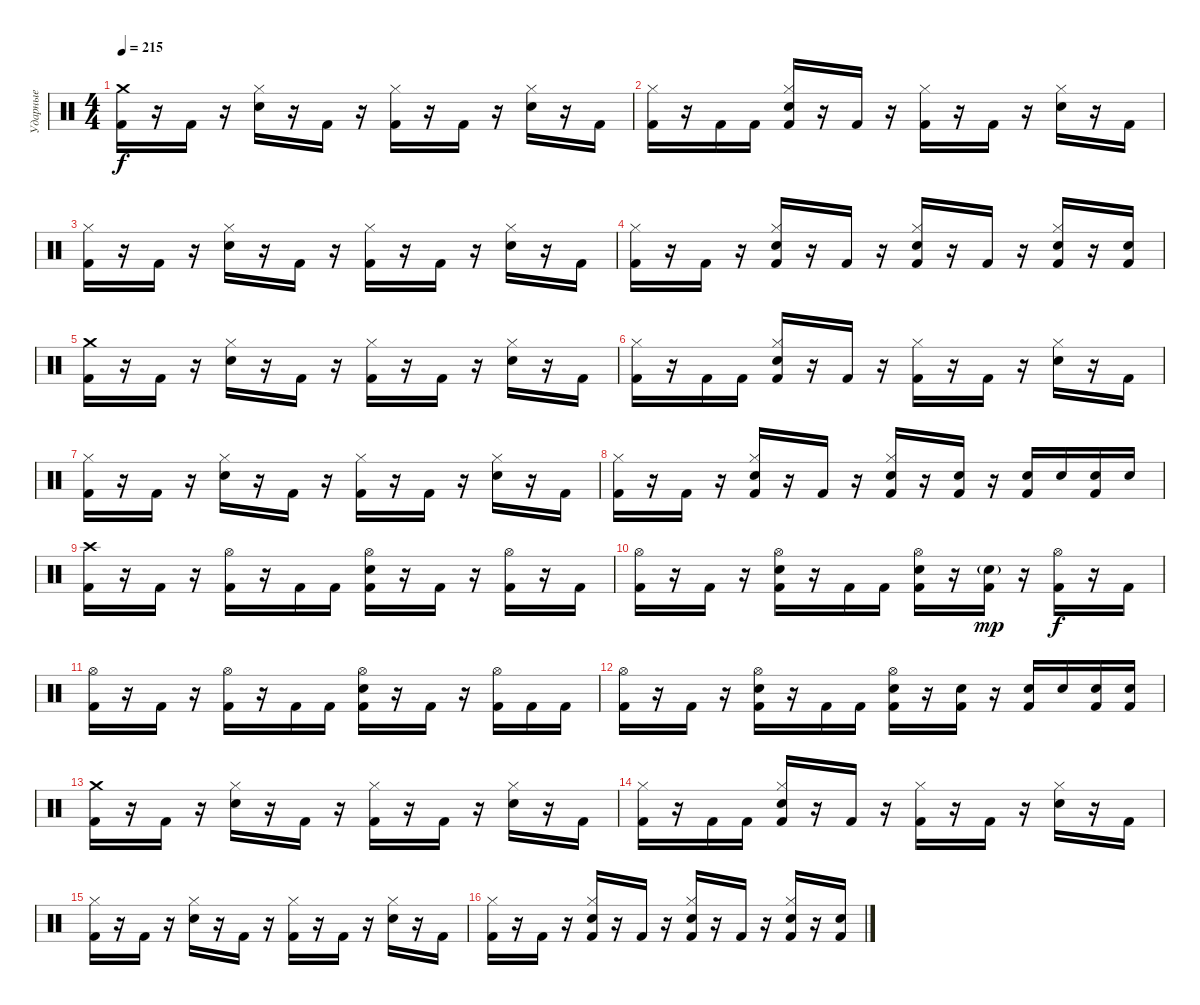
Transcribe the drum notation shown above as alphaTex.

\track ("Ударные" "Ударные") {instrument percussion}
\staff {score}
\articulation defaults
\ts (4 4)
\tempo 215
\clef neutral
\ks c
("Crash medium (hit)" "Kick (hit) 2").16{dy f} r.16 "Kick (hit) 2".16 r.16 ("Hi-Hat (closed)" "Snare (hit) 2").16 r.16 "Kick (hit) 2".16 r.16 ("Hi-Hat (closed)" "Kick (hit) 2").16 r.16 "Kick (hit) 2".16 r.16 ("Hi-Hat (closed)" "Snare (hit) 2").16 r.16 "Kick (hit) 2".16 |
("Hi-Hat (closed)" "Kick (hit) 2").16 r.16 "Kick (hit) 2".16 "Kick (hit) 2".16 ("Hi-Hat (closed)" "Snare (hit) 2" "Kick (hit) 2").16 r.16 "Kick (hit) 2".16 r.16 ("Hi-Hat (closed)" "Kick (hit) 2").16 r.16 "Kick (hit) 2".16 r.16 ("Hi-Hat (closed)" "Snare (hit) 2").16 r.16 "Kick (hit) 2".16 |
("Hi-Hat (closed)" "Kick (hit) 2").16 r.16 "Kick (hit) 2".16 r.16 ("Hi-Hat (closed)" "Snare (hit) 2").16 r.16 "Kick (hit) 2".16 r.16 ("Hi-Hat (closed)" "Kick (hit) 2").16 r.16 "Kick (hit) 2".16 r.16 ("Hi-Hat (closed)" "Snare (hit) 2").16 r.16 "Kick (hit) 2".16 |
("Hi-Hat (closed)" "Kick (hit) 2").16 r.16 "Kick (hit) 2".16 r.16 ("Hi-Hat (closed)" "Snare (hit) 2" "Kick (hit) 2").16 r.16 "Kick (hit) 2".16 r.16 ("Hi-Hat (closed)" "Snare (hit) 2" "Kick (hit) 2").16 r.16 "Kick (hit) 2".16 r.16 ("Hi-Hat (closed)" "Snare (hit) 2" "Kick (hit) 2").16 r.16 ("Snare (hit) 2" "Kick (hit) 2").16 |
("Crash medium (hit)" "Kick (hit) 2").16 r.16 "Kick (hit) 2".16 r.16 ("Hi-Hat (closed)" "Snare (hit) 2").16 r.16 "Kick (hit) 2".16 r.16 ("Hi-Hat (closed)" "Kick (hit) 2").16 r.16 "Kick (hit) 2".16 r.16 ("Hi-Hat (closed)" "Snare (hit) 2").16 r.16 "Kick (hit) 2".16 |
("Hi-Hat (closed)" "Kick (hit) 2").16 r.16 "Kick (hit) 2".16 "Kick (hit) 2".16 ("Hi-Hat (closed)" "Snare (hit) 2" "Kick (hit) 2").16 r.16 "Kick (hit) 2".16 r.16 ("Hi-Hat (closed)" "Kick (hit) 2").16 r.16 "Kick (hit) 2".16 r.16 ("Hi-Hat (closed)" "Snare (hit) 2").16 r.16 "Kick (hit) 2".16 |
("Hi-Hat (closed)" "Kick (hit) 2").16 r.16 "Kick (hit) 2".16 r.16 ("Hi-Hat (closed)" "Snare (hit) 2").16 r.16 "Kick (hit) 2".16 r.16 ("Hi-Hat (closed)" "Kick (hit) 2").16 r.16 "Kick (hit) 2".16 r.16 ("Hi-Hat (closed)" "Snare (hit) 2").16 r.16 "Kick (hit) 2".16 |
("Hi-Hat (closed)" "Kick (hit) 2").16 r.16 "Kick (hit) 2".16 r.16 ("Hi-Hat (closed)" "Snare (hit) 2" "Kick (hit) 2").16 r.16 "Kick (hit) 2".16 r.16 ("Hi-Hat (closed)" "Snare (hit) 2" "Kick (hit) 2").16 r.16 ("Snare (hit) 2" "Kick (hit) 2").16 r.16 ("Snare (hit) 2" "Kick (hit) 2").16 "Snare (hit) 2".16 ("Snare (hit) 2" "Kick (hit) 2").16 "Snare (hit) 2".16 |
("Crash high (hit)" "Kick (hit) 2").16 r.16 "Kick (hit) 2".16 r.16 ("Hi-Hat (open)" "Kick (hit) 2").16 r.16 "Kick (hit) 2".16 "Kick (hit) 2".16 ("Hi-Hat (open)" "Snare (hit) 2" "Kick (hit) 2").16 r.16 "Kick (hit) 2".16 r.16 ("Hi-Hat (open)" "Kick (hit) 2").16 r.16 "Kick (hit) 2".16 |
("Hi-Hat (open)" "Kick (hit) 2").16 r.16 "Kick (hit) 2".16 r.16 ("Hi-Hat (open)" "Snare (hit) 2" "Kick (hit) 2").16 r.16 "Kick (hit) 2".16 "Kick (hit) 2".16 ("Hi-Hat (open)" "Snare (hit) 2" "Kick (hit) 2").16 r.16 ("Snare (hit) 2"{g} "Kick (hit) 2").16{dy mp} r.16 ("Hi-Hat (open)" "Kick (hit) 2").16{dy f} r.16 "Kick (hit) 2".16 |
("Hi-Hat (open)" "Kick (hit) 2").16 r.16 "Kick (hit) 2".16 r.16 ("Hi-Hat (open)" "Kick (hit) 2").16 r.16 "Kick (hit) 2".16 "Kick (hit) 2".16 ("Hi-Hat (open)" "Snare (hit) 2" "Kick (hit) 2").16 r.16 "Kick (hit) 2".16 r.16 ("Hi-Hat (open)" "Kick (hit) 2").16 "Kick (hit) 2".16 "Kick (hit) 2".16 |
("Hi-Hat (open)" "Kick (hit) 2").16 r.16 "Kick (hit) 2".16 r.16 ("Hi-Hat (open)" "Snare (hit) 2" "Kick (hit) 2").16 r.16 "Kick (hit) 2".16 "Kick (hit) 2".16 ("Hi-Hat (open)" "Snare (hit) 2" "Kick (hit) 2").16 r.16 ("Snare (hit) 2" "Kick (hit) 2").16 r.16 ("Snare (hit) 2" "Kick (hit) 2").16 "Snare (hit) 2".16 ("Snare (hit) 2" "Kick (hit) 2").16 ("Snare (hit) 2" "Kick (hit) 2").16 |
("Crash medium (hit)" "Kick (hit) 2").16 r.16 "Kick (hit) 2".16 r.16 ("Hi-Hat (closed)" "Snare (hit) 2").16 r.16 "Kick (hit) 2".16 r.16 ("Hi-Hat (closed)" "Kick (hit) 2").16 r.16 "Kick (hit) 2".16 r.16 ("Hi-Hat (closed)" "Snare (hit) 2").16 r.16 "Kick (hit) 2".16 |
("Hi-Hat (closed)" "Kick (hit) 2").16 r.16 "Kick (hit) 2".16 "Kick (hit) 2".16 ("Hi-Hat (closed)" "Snare (hit) 2" "Kick (hit) 2").16 r.16 "Kick (hit) 2".16 r.16 ("Hi-Hat (closed)" "Kick (hit) 2").16 r.16 "Kick (hit) 2".16 r.16 ("Hi-Hat (closed)" "Snare (hit) 2").16 r.16 "Kick (hit) 2".16 |
("Hi-Hat (closed)" "Kick (hit) 2").16 r.16 "Kick (hit) 2".16 r.16 ("Hi-Hat (closed)" "Snare (hit) 2").16 r.16 "Kick (hit) 2".16 r.16 ("Hi-Hat (closed)" "Kick (hit) 2").16 r.16 "Kick (hit) 2".16 r.16 ("Hi-Hat (closed)" "Snare (hit) 2").16 r.16 "Kick (hit) 2".16 |
("Hi-Hat (closed)" "Kick (hit) 2").16 r.16 "Kick (hit) 2".16 r.16 ("Hi-Hat (closed)" "Snare (hit) 2" "Kick (hit) 2").16 r.16 "Kick (hit) 2".16 r.16 ("Hi-Hat (closed)" "Snare (hit) 2" "Kick (hit) 2").16 r.16 "Kick (hit) 2".16 r.16 ("Hi-Hat (closed)" "Snare (hit) 2" "Kick (hit) 2").16 r.16 ("Snare (hit) 2" "Kick (hit) 2").16
